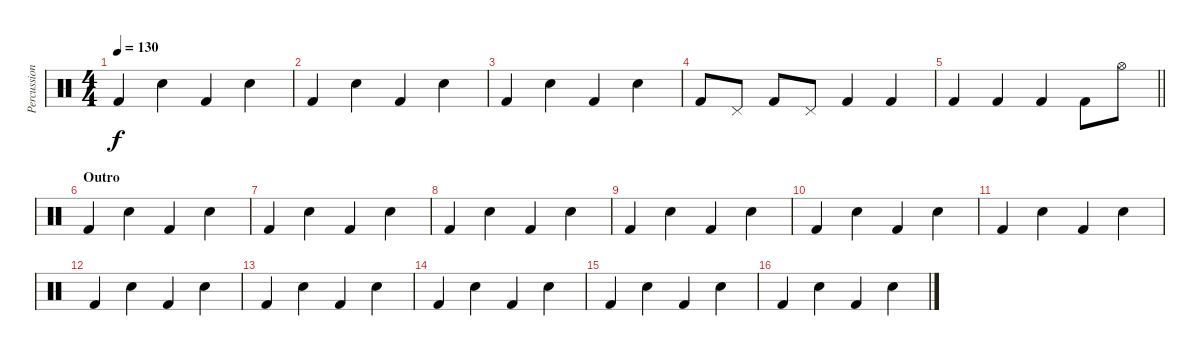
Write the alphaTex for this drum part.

\track ("Percussion 2" "Percussion") {instrument percussion}
\staff {score}
\articulation defaults
\ts (4 4)
\tempo 130
\clef neutral
\ks c "Kick (hit) 2".4{dy f} "Electric Snare (hit)".4 "Kick (hit) 2".4 "Electric Snare (hit)".4
|
"Kick (hit) 2".4 "Electric Snare (hit)".4 "Kick (hit) 2".4 "Electric Snare (hit)".4 |
"Kick (hit) 2".4 "Electric Snare (hit)".4 "Kick (hit) 2".4 "Electric Snare (hit)".4 |
"Kick (hit) 2".8 "Pedal Hi-Hat (hit)".8 "Kick (hit) 2".8 "Pedal Hi-Hat (hit)".8 "Kick (hit) 2".4 "Kick (hit) 2".4 |
\barLineRight lightlight "Kick (hit) 2".4 "Kick (hit) 2".4 "Kick (hit) 2".4 "Kick (hit) 2".8 "Hi-Hat (open)".8
|
\section ("" "Outro")
"Kick (hit) 2".4 "Electric Snare (hit)".4 "Kick (hit) 2".4 "Electric Snare (hit)".4 |
"Kick (hit) 2".4 "Electric Snare (hit)".4 "Kick (hit) 2".4 "Electric Snare (hit)".4 |
"Kick (hit) 2".4 "Electric Snare (hit)".4 "Kick (hit) 2".4 "Electric Snare (hit)".4 |
"Kick (hit) 2".4 "Electric Snare (hit)".4 "Kick (hit) 2".4 "Electric Snare (hit)".4 |
"Kick (hit) 2".4 "Electric Snare (hit)".4 "Kick (hit) 2".4 "Electric Snare (hit)".4 |
"Kick (hit) 2".4 "Electric Snare (hit)".4 "Kick (hit) 2".4 "Electric Snare (hit)".4 |
"Kick (hit) 2".4 "Electric Snare (hit)".4 "Kick (hit) 2".4 "Electric Snare (hit)".4 |
"Kick (hit) 2".4 "Electric Snare (hit)".4 "Kick (hit) 2".4 "Electric Snare (hit)".4 |
"Kick (hit) 2".4 "Electric Snare (hit)".4 "Kick (hit) 2".4 "Electric Snare (hit)".4 |
"Kick (hit) 2".4 "Electric Snare (hit)".4 "Kick (hit) 2".4 "Electric Snare (hit)".4 |
"Kick (hit) 2".4 "Electric Snare (hit)".4 "Kick (hit) 2".4 "Electric Snare (hit)".4
